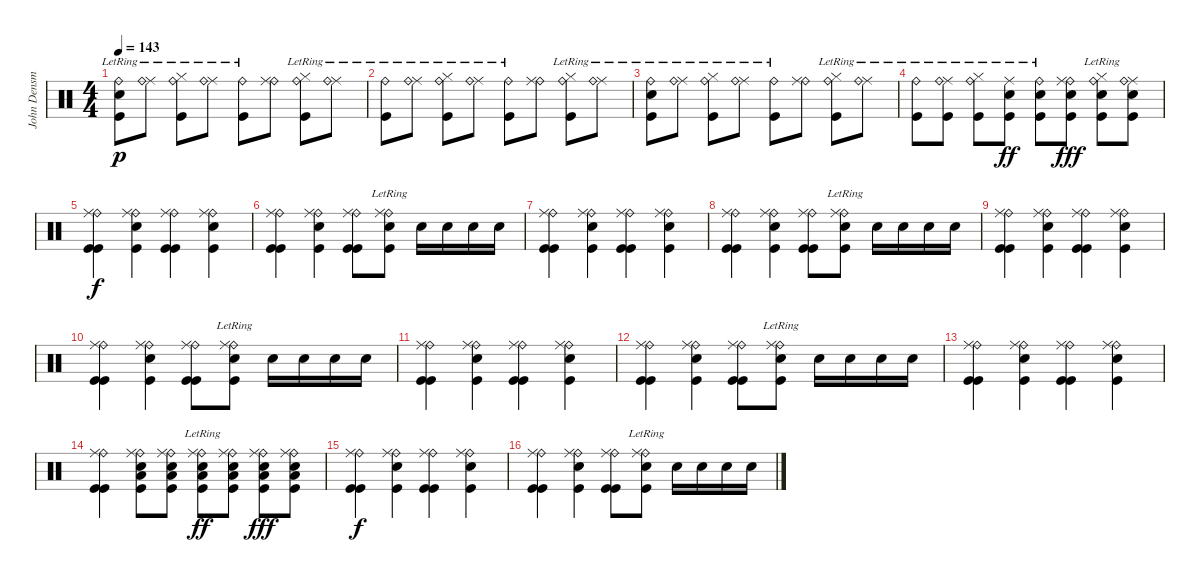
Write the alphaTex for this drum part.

\track ("John Densmore" "John Densm") {instrument percussion}
\staff {score}
\articulation defaults
\ts (4 4)
\tempo 143
\clef neutral
\ks c
("Electric Snare (hit)" "Ride (bell)"{lr} "Kick (hit)").8{dy p} ("Ride (middle)"{lr} "Ride (bell)"{lr}).8 ("Hi-Hat (closed)" "Ride (bell)"{lr} "Kick (hit)").8 ("Ride (middle)"{lr} "Ride (bell)"{lr}).8 ("Ride (bell)"{lr} "Kick (hit)").8 ("Ride (bell)" "Ride (middle)").8 ("Hi-Hat (closed)" "Ride (bell)"{lr} "Kick (hit)").8 ("Ride (middle)"{lr} "Ride (bell)"{lr}).8 |
("Ride (bell)"{lr} "Kick (hit)").8 ("Ride (middle)"{lr} "Ride (bell)"{lr}).8 ("Hi-Hat (closed)" "Ride (bell)"{lr} "Kick (hit)").8 ("Ride (middle)"{lr} "Ride (bell)"{lr}).8 ("Ride (bell)"{lr} "Kick (hit)").8 ("Ride (bell)" "Ride (middle)").8 ("Hi-Hat (closed)" "Ride (bell)"{lr} "Kick (hit)").8 ("Ride (middle)"{lr} "Ride (bell)"{lr}).8 |
("Electric Snare (hit)" "Ride (bell)"{lr} "Kick (hit)").8 ("Ride (middle)"{lr} "Ride (bell)"{lr}).8 ("Hi-Hat (closed)" "Ride (bell)"{lr} "Kick (hit)").8 ("Ride (middle)"{lr} "Ride (bell)"{lr}).8 ("Ride (bell)"{lr} "Kick (hit)").8 ("Ride (bell)" "Ride (middle)").8 ("Hi-Hat (closed)" "Ride (bell)"{lr} "Kick (hit)").8 ("Ride (middle)"{lr} "Ride (bell)"{lr}).8 |
("Ride (bell)"{lr} "Kick (hit)").8 ("Ride (middle)"{lr} "Ride (bell)"{lr} "Kick (hit)").8 ("Hi-Hat (closed)" "Ride (bell)"{lr} "Kick (hit)").8 ("Snare (hit) 2" "Ride (middle)"{lr} "Kick (hit)"{lr}).8{dy ff} ("Ride (bell)"{lr} "Snare (hit) 2" "Kick (hit)").8 ("Snare (hit) 2" "Ride (bell)" "Ride (middle)" "Kick (hit)").8{dy fff} ("Snare (hit) 2" "Hi-Hat (closed)" "Ride (bell)"{lr} "Kick (hit)").8 ("Ride (middle)"{lr} "Snare (hit) 2" "Ride (bell)"{lr} "Kick (hit)").8 |
("Ride (bell)" "Ride (middle)" "Kick (hit)" "Kick (hit)").4{dy f} ("Ride (bell)" "Ride (middle)" "Kick (hit)" "Snare (hit) 2").4 ("Ride (bell)" "Ride (middle)" "Kick (hit)" "Kick (hit)").4 ("Ride (bell)" "Ride (middle)" "Kick (hit)" "Snare (hit) 2").4 |
("Ride (bell)" "Ride (middle)" "Kick (hit)" "Kick (hit)").4 ("Ride (bell)" "Ride (middle)" "Kick (hit)" "Snare (hit) 2").4 ("Ride (bell)" "Ride (middle)" "Kick (hit)" "Kick (hit)").8 ("Ride (bell)"{lr} "Ride (middle)"{lr} "Kick (hit)" "Snare (hit) 2").8 "Snare (hit) 2".16 "Snare (hit) 2".16 "Snare (hit) 2".16 "Snare (hit) 2".16 |
("Ride (bell)" "Ride (middle)" "Kick (hit)" "Kick (hit)").4 ("Ride (bell)" "Ride (middle)" "Kick (hit)" "Snare (hit) 2").4 ("Ride (bell)" "Ride (middle)" "Kick (hit)" "Kick (hit)").4 ("Ride (bell)" "Ride (middle)" "Kick (hit)" "Snare (hit) 2").4 |
("Ride (bell)" "Ride (middle)" "Kick (hit)" "Kick (hit)").4 ("Ride (bell)" "Ride (middle)" "Kick (hit)" "Snare (hit) 2").4 ("Ride (bell)" "Ride (middle)" "Kick (hit)" "Kick (hit)").8 ("Ride (bell)"{lr} "Ride (middle)"{lr} "Kick (hit)" "Snare (hit) 2").8 "Snare (hit) 2".16 "Snare (hit) 2".16 "Snare (hit) 2".16 "Snare (hit) 2".16 |
("Ride (bell)" "Ride (middle)" "Kick (hit)" "Kick (hit)").4 ("Ride (bell)" "Ride (middle)" "Kick (hit)" "Snare (hit) 2").4 ("Ride (bell)" "Ride (middle)" "Kick (hit)" "Kick (hit)").4 ("Ride (bell)" "Ride (middle)" "Kick (hit)" "Snare (hit) 2").4 |
("Ride (bell)" "Ride (middle)" "Kick (hit)" "Kick (hit)").4 ("Ride (bell)" "Ride (middle)" "Kick (hit)" "Snare (hit) 2").4 ("Ride (bell)" "Ride (middle)" "Kick (hit)" "Kick (hit)").8 ("Ride (bell)"{lr} "Ride (middle)"{lr} "Kick (hit)" "Snare (hit) 2").8 "Snare (hit) 2".16 "Snare (hit) 2".16 "Snare (hit) 2".16 "Snare (hit) 2".16 |
("Ride (bell)" "Ride (middle)" "Kick (hit)" "Kick (hit)").4 ("Ride (bell)" "Ride (middle)" "Kick (hit)" "Snare (hit) 2").4 ("Ride (bell)" "Ride (middle)" "Kick (hit)" "Kick (hit)").4 ("Ride (bell)" "Ride (middle)" "Kick (hit)" "Snare (hit) 2").4 |
("Ride (bell)" "Ride (middle)" "Kick (hit)" "Kick (hit)").4 ("Ride (bell)" "Ride (middle)" "Kick (hit)" "Snare (hit) 2").4 ("Ride (bell)" "Ride (middle)" "Kick (hit)" "Kick (hit)").8 ("Ride (bell)"{lr} "Ride (middle)"{lr} "Kick (hit)" "Snare (hit) 2").8 "Snare (hit) 2".16 "Snare (hit) 2".16 "Snare (hit) 2".16 "Snare (hit) 2".16 |
("Ride (bell)" "Ride (middle)" "Kick (hit)" "Kick (hit)").4 ("Ride (bell)" "Ride (middle)" "Kick (hit)" "Snare (hit) 2").4 ("Ride (bell)" "Ride (middle)" "Kick (hit)" "Kick (hit)").4 ("Ride (bell)" "Ride (middle)" "Kick (hit)" "Snare (hit) 2").4 |
("Ride (bell)" "Ride (middle)" "Kick (hit)" "Kick (hit)").4 ("Ride (bell)" "Ride (middle)" "Kick (hit)" "Low Tom (hit)" "Snare (hit) 2").8 ("Ride (bell)" "Ride (middle)" "Kick (hit)" "Low Tom (hit)" "Snare (hit) 2").8 ("Ride (bell)"{lr} "Ride (middle)"{lr} "Kick (hit)" "Low Tom (hit)" "Snare (hit) 2").8{dy ff} ("Ride (bell)" "Ride (middle)" "Kick (hit)" "Low Tom (hit)" "Snare (hit) 2").8 ("Ride (bell)" "Ride (middle)" "Kick (hit)" "Low Tom (hit)" "Snare (hit) 2").8{dy fff} ("Ride (bell)" "Ride (middle)" "Kick (hit)" "Low Tom (hit)" "Snare (hit) 2").8 |
("Ride (bell)" "Ride (middle)" "Kick (hit)" "Kick (hit)").4{dy f} ("Ride (bell)" "Ride (middle)" "Kick (hit)" "Snare (hit) 2").4 ("Ride (bell)" "Ride (middle)" "Kick (hit)" "Kick (hit)").4 ("Ride (bell)" "Ride (middle)" "Kick (hit)" "Snare (hit) 2").4 |
("Ride (bell)" "Ride (middle)" "Kick (hit)" "Kick (hit)").4 ("Ride (bell)" "Ride (middle)" "Kick (hit)" "Snare (hit) 2").4 ("Ride (bell)" "Ride (middle)" "Kick (hit)" "Kick (hit)").8 ("Ride (bell)"{lr} "Ride (middle)"{lr} "Kick (hit)" "Snare (hit) 2").8 "Snare (hit) 2".16 "Snare (hit) 2".16 "Snare (hit) 2".16 "Snare (hit) 2".16
